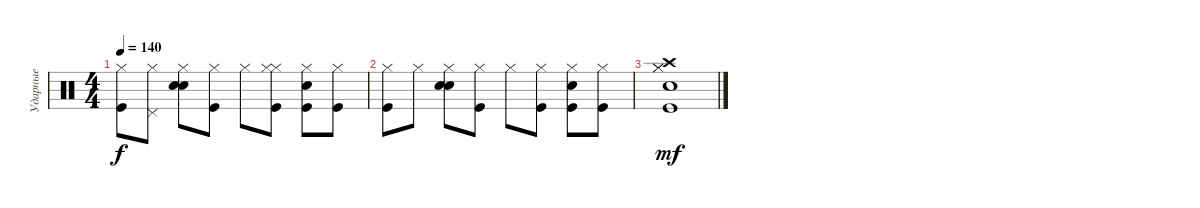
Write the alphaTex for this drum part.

\track ("Ударные" "Ударные") {instrument percussion}
\staff {score}
\articulation defaults
\ts (4 4)
\tempo 140
\clef neutral
\ks c
("Hi-Hat (closed)" "Kick (hit)").8{dy f} ("Hi-Hat (closed)" "Pedal Hi-Hat (hit)").8 ("Hi-Hat (closed)" "Snare (hit) 2" "Snare (hit) 2").8 ("Hi-Hat (closed)" "Kick (hit)").8 "Hi-Hat (closed)".8 ("Hi-Hat (closed)" "Hi-Hat (closed)" "Kick (hit)").8 ("Hi-Hat (closed)" "Snare (hit) 2" "Kick (hit)").8 ("Hi-Hat (closed)" "Kick (hit)").8 |
("Hi-Hat (closed)" "Kick (hit)").8 "Hi-Hat (closed)".8 ("Hi-Hat (closed)" "Snare (hit) 2" "Snare (hit) 2").8 ("Hi-Hat (closed)" "Kick (hit)").8 "Hi-Hat (closed)".8 ("Hi-Hat (closed)" "Kick (hit)").8 ("Hi-Hat (closed)" "Snare (hit) 2" "Kick (hit)").8 ("Hi-Hat (closed)" "Kick (hit)").8 |
("Crash high (hit)" "Hi-Hat (closed)" "Kick (hit)" "Snare (hit) 2" "Hi-Hat (closed)").1{dy mf volume 3}
